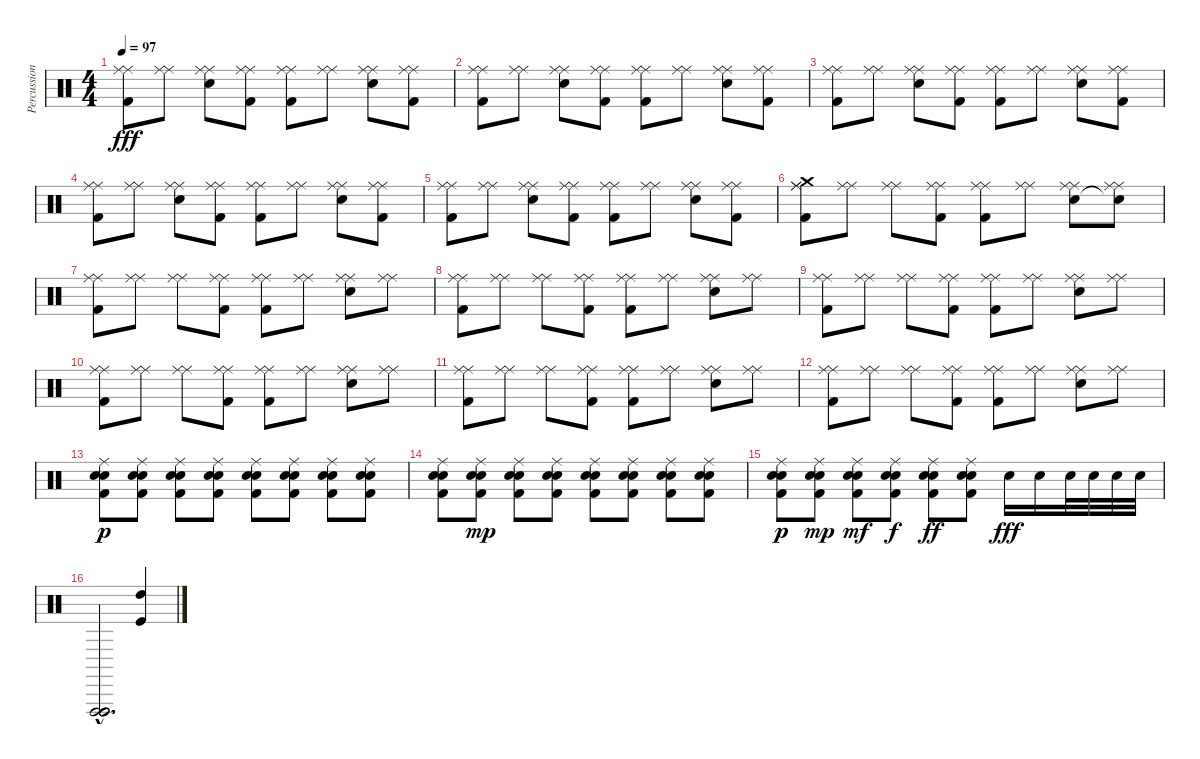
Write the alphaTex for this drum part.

\track ("Percussions" "Percussion") {instrument percussion}
\staff {score}
\articulation defaults
\ts (4 4)
\tempo 97
\clef neutral
\ks c
("Ride (middle)" "Ride (middle)" "Kick (hit) 2").8{dy fff} ("Ride (middle)" "Ride (middle)").8 ("Ride (middle)" "Ride (middle)" "Electric Snare (hit)").8 ("Ride (middle)" "Ride (middle)" "Kick (hit) 2").8 ("Ride (middle)" "Ride (middle)" "Kick (hit) 2").8 ("Ride (middle)" "Ride (middle)").8 ("Ride (middle)" "Ride (middle)" "Electric Snare (hit)").8 ("Ride (middle)" "Ride (middle)" "Kick (hit) 2").8 |
("Ride (middle)" "Ride (middle)" "Kick (hit) 2").8 ("Ride (middle)" "Ride (middle)").8 ("Ride (middle)" "Ride (middle)" "Electric Snare (hit)").8 ("Ride (middle)" "Ride (middle)" "Kick (hit) 2").8 ("Ride (middle)" "Ride (middle)" "Kick (hit) 2").8 ("Ride (middle)" "Ride (middle)").8 ("Ride (middle)" "Ride (middle)" "Electric Snare (hit)").8 ("Ride (middle)" "Ride (middle)" "Kick (hit) 2").8 |
("Ride (middle)" "Ride (middle)" "Kick (hit) 2").8 ("Ride (middle)" "Ride (middle)").8 ("Ride (middle)" "Ride (middle)" "Electric Snare (hit)").8 ("Ride (middle)" "Ride (middle)" "Kick (hit) 2").8 ("Ride (middle)" "Ride (middle)" "Kick (hit) 2").8 ("Ride (middle)" "Ride (middle)").8 ("Ride (middle)" "Ride (middle)" "Electric Snare (hit)").8 ("Ride (middle)" "Ride (middle)" "Kick (hit) 2").8 |
("Ride (middle)" "Ride (middle)" "Kick (hit) 2").8 ("Ride (middle)" "Ride (middle)").8 ("Ride (middle)" "Ride (middle)" "Electric Snare (hit)").8 ("Ride (middle)" "Ride (middle)" "Kick (hit) 2").8 ("Ride (middle)" "Ride (middle)" "Kick (hit) 2").8 ("Ride (middle)" "Ride (middle)").8 ("Ride (middle)" "Ride (middle)" "Electric Snare (hit)").8 ("Ride (middle)" "Ride (middle)" "Kick (hit) 2").8 |
("Ride (middle)" "Ride (middle)" "Kick (hit) 2").8 ("Ride (middle)" "Ride (middle)").8 ("Ride (middle)" "Ride (middle)" "Electric Snare (hit)").8 ("Ride (middle)" "Ride (middle)" "Kick (hit) 2").8 ("Ride (middle)" "Ride (middle)" "Kick (hit) 2").8 ("Ride (middle)" "Ride (middle)").8 ("Ride (middle)" "Ride (middle)" "Electric Snare (hit)").8 ("Ride (middle)" "Ride (middle)" "Kick (hit) 2").8 |
("Ride (middle)" "Ride (middle)" "Kick (hit) 2" "Crash medium (hit)").8 ("Ride (middle)" "Ride (middle)").8 ("Ride (middle)" "Ride (middle)").8 ("Ride (middle)" "Ride (middle)" "Kick (hit) 2").8 ("Ride (middle)" "Ride (middle)" "Kick (hit) 2").8 ("Ride (middle)" "Ride (middle)").8 ("Ride (middle)" "Ride (middle)" "Electric Snare (hit)").8 ("Ride (middle)" "Ride (middle)" "Snare (hit)"{t}).8 |
("Ride (middle)" "Ride (middle)" "Kick (hit) 2").8 ("Ride (middle)" "Ride (middle)").8 ("Ride (middle)" "Ride (middle)").8 ("Ride (middle)" "Ride (middle)" "Kick (hit) 2").8 ("Ride (middle)" "Ride (middle)" "Kick (hit) 2").8 ("Ride (middle)" "Ride (middle)").8 ("Ride (middle)" "Ride (middle)" "Electric Snare (hit)").8 ("Ride (middle)" "Ride (middle)").8 |
("Ride (middle)" "Ride (middle)" "Kick (hit) 2").8 ("Ride (middle)" "Ride (middle)").8 ("Ride (middle)" "Ride (middle)").8 ("Ride (middle)" "Ride (middle)" "Kick (hit) 2").8 ("Ride (middle)" "Ride (middle)" "Kick (hit) 2").8 ("Ride (middle)" "Ride (middle)").8 ("Ride (middle)" "Ride (middle)" "Electric Snare (hit)").8 ("Ride (middle)" "Ride (middle)").8 |
("Ride (middle)" "Ride (middle)" "Kick (hit) 2").8 ("Ride (middle)" "Ride (middle)").8 ("Ride (middle)" "Ride (middle)").8 ("Ride (middle)" "Ride (middle)" "Kick (hit) 2").8 ("Ride (middle)" "Ride (middle)" "Kick (hit) 2").8 ("Ride (middle)" "Ride (middle)").8 ("Ride (middle)" "Ride (middle)" "Electric Snare (hit)").8 ("Ride (middle)" "Ride (middle)").8 |
("Ride (middle)" "Ride (middle)" "Kick (hit) 2").8 ("Ride (middle)" "Ride (middle)").8 ("Ride (middle)" "Ride (middle)").8 ("Ride (middle)" "Ride (middle)" "Kick (hit) 2").8 ("Ride (middle)" "Ride (middle)" "Kick (hit) 2").8 ("Ride (middle)" "Ride (middle)").8 ("Ride (middle)" "Ride (middle)" "Electric Snare (hit)").8 ("Ride (middle)" "Ride (middle)").8 |
("Ride (middle)" "Ride (middle)" "Kick (hit) 2").8 ("Ride (middle)" "Ride (middle)").8 ("Ride (middle)" "Ride (middle)").8 ("Ride (middle)" "Ride (middle)" "Kick (hit) 2").8 ("Ride (middle)" "Ride (middle)" "Kick (hit) 2").8 ("Ride (middle)" "Ride (middle)").8 ("Ride (middle)" "Ride (middle)" "Electric Snare (hit)").8 ("Ride (middle)" "Ride (middle)").8 |
("Ride (middle)" "Ride (middle)" "Kick (hit) 2").8 ("Ride (middle)" "Ride (middle)").8 ("Ride (middle)" "Ride (middle)").8 ("Ride (middle)" "Ride (middle)" "Kick (hit) 2").8 ("Ride (middle)" "Ride (middle)" "Kick (hit) 2").8 ("Ride (middle)" "Ride (middle)").8 ("Ride (middle)" "Ride (middle)" "Electric Snare (hit)").8 ("Ride (middle)" "Ride (middle)").8 |
("Ride (middle)" "Electric Snare (hit)" "Kick (hit) 2" "Snare (hit) 2").8{dy p} ("Ride (middle)" "Electric Snare (hit)" "Kick (hit) 2" "Snare (hit) 2").8 ("Ride (middle)" "Electric Snare (hit)" "Kick (hit) 2" "Snare (hit) 2").8 ("Ride (middle)" "Electric Snare (hit)" "Kick (hit) 2" "Snare (hit) 2").8 ("Ride (middle)" "Electric Snare (hit)" "Kick (hit) 2" "Snare (hit) 2").8 ("Ride (middle)" "Electric Snare (hit)" "Kick (hit) 2" "Snare (hit) 2").8 ("Ride (middle)" "Electric Snare (hit)" "Kick (hit) 2" "Snare (hit) 2").8 ("Ride (middle)" "Electric Snare (hit)" "Kick (hit) 2" "Snare (hit) 2").8 |
("Ride (middle)" "Electric Snare (hit)" "Kick (hit) 2" "Snare (hit) 2").8 ("Ride (middle)" "Electric Snare (hit)" "Kick (hit) 2" "Snare (hit) 2").8{dy mp} ("Ride (middle)" "Electric Snare (hit)" "Kick (hit) 2" "Snare (hit) 2").8 ("Ride (middle)" "Electric Snare (hit)" "Kick (hit) 2" "Snare (hit) 2").8 ("Ride (middle)" "Electric Snare (hit)" "Kick (hit) 2" "Snare (hit) 2").8 ("Ride (middle)" "Electric Snare (hit)" "Kick (hit) 2" "Snare (hit) 2").8 ("Ride (middle)" "Electric Snare (hit)" "Kick (hit) 2" "Snare (hit) 2").8 ("Ride (middle)" "Electric Snare (hit)" "Kick (hit) 2" "Snare (hit) 2").8 |
("Ride (middle)" "Electric Snare (hit)" "Kick (hit) 2" "Snare (hit) 2").8{dy p} ("Ride (middle)" "Electric Snare (hit)" "Kick (hit) 2" "Snare (hit) 2").8{dy mp} ("Ride (middle)" "Electric Snare (hit)" "Kick (hit) 2" "Snare (hit) 2").8{dy mf} ("Ride (middle)" "Electric Snare (hit)" "Kick (hit) 2" "Snare (hit) 2").8{dy f} ("Ride (middle)" "Electric Snare (hit)" "Kick (hit) 2" "Snare (hit) 2").8{dy ff} ("Ride (middle)" "Electric Snare (hit)" "Kick (hit) 2" "Snare (hit) 2").8 "Electric Snare (hit)".16{dy fff} "Snare (hit) 2".16 "Electric Snare (hit)".32 "Snare (hit) 2".32 "Electric Snare (hit)".32 "Snare (hit) 2".32 |
("Vibraslap (hit)"{hac} "Vibraslap (hit)"{hac} "Vibraslap (hit)"{hac} "Vibraslap (hit)"{hac}).2{d} ("Kick (hit)" "High Tom (hit)").4
